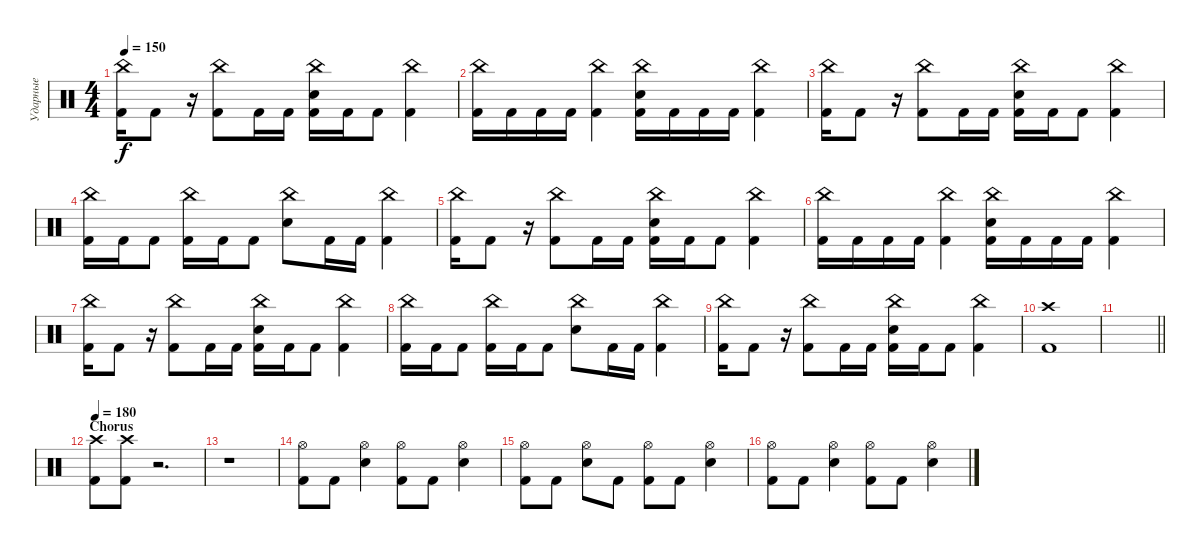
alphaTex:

\track ("Ударные" "Ударные") {instrument percussion}
\staff {score}
\articulation defaults
\ts (4 4)
\tempo 150
\clef neutral
\ks c
("China (hit)" "Kick (hit) 2").16{dy f} "Kick (hit) 2".8 r.16 ("China (hit)" "Kick (hit) 2").8 "Kick (hit) 2".16 "Kick (hit) 2".16 ("China (hit)" "Electric Snare (hit)" "Kick (hit) 2").16 "Kick (hit) 2".16 "Kick (hit) 2".8 ("China (hit)" "Kick (hit) 2").4 |
("China (hit)" "Kick (hit) 2").16 "Kick (hit) 2".16 "Kick (hit) 2".16 "Kick (hit) 2".16 ("China (hit)" "Kick (hit) 2").4 ("China (hit)" "Electric Snare (hit)" "Kick (hit) 2").16 "Kick (hit) 2".16 "Kick (hit) 2".16 "Kick (hit) 2".16 ("China (hit)" "Kick (hit) 2").4 |
("China (hit)" "Kick (hit) 2").16 "Kick (hit) 2".8 r.16 ("China (hit)" "Kick (hit) 2").8 "Kick (hit) 2".16 "Kick (hit) 2".16 ("China (hit)" "Electric Snare (hit)" "Kick (hit) 2").16 "Kick (hit) 2".16 "Kick (hit) 2".8 ("China (hit)" "Kick (hit) 2").4 |
("China (hit)" "Kick (hit) 2").16 "Kick (hit) 2".16 "Kick (hit) 2".8 ("China (hit)" "Kick (hit) 2").16 "Kick (hit) 2".16 "Kick (hit) 2".8 ("China (hit)" "Electric Snare (hit)").8 "Kick (hit) 2".16 "Kick (hit) 2".16 ("China (hit)" "Kick (hit) 2").4 |
("China (hit)" "Kick (hit) 2").16 "Kick (hit) 2".8 r.16 ("China (hit)" "Kick (hit) 2").8 "Kick (hit) 2".16 "Kick (hit) 2".16 ("China (hit)" "Electric Snare (hit)" "Kick (hit) 2").16 "Kick (hit) 2".16 "Kick (hit) 2".8 ("China (hit)" "Kick (hit) 2").4 |
("China (hit)" "Kick (hit) 2").16 "Kick (hit) 2".16 "Kick (hit) 2".16 "Kick (hit) 2".16 ("China (hit)" "Kick (hit) 2").4 ("China (hit)" "Electric Snare (hit)" "Kick (hit) 2").16 "Kick (hit) 2".16 "Kick (hit) 2".16 "Kick (hit) 2".16 ("China (hit)" "Kick (hit) 2").4 |
("China (hit)" "Kick (hit) 2").16 "Kick (hit) 2".8 r.16 ("China (hit)" "Kick (hit) 2").8 "Kick (hit) 2".16 "Kick (hit) 2".16 ("China (hit)" "Electric Snare (hit)" "Kick (hit) 2").16 "Kick (hit) 2".16 "Kick (hit) 2".8 ("China (hit)" "Kick (hit) 2").4 |
("China (hit)" "Kick (hit) 2").16 "Kick (hit) 2".16 "Kick (hit) 2".8 ("China (hit)" "Kick (hit) 2").16 "Kick (hit) 2".16 "Kick (hit) 2".8 ("China (hit)" "Electric Snare (hit)").8 "Kick (hit) 2".16 "Kick (hit) 2".16 ("China (hit)" "Kick (hit) 2").4 |
("China (hit)" "Kick (hit) 2").16 "Kick (hit) 2".8 r.16 ("China (hit)" "Kick (hit) 2").8 "Kick (hit) 2".16 "Kick (hit) 2".16 ("China (hit)" "Electric Snare (hit)" "Kick (hit) 2").16 "Kick (hit) 2".16 "Kick (hit) 2".8 ("China (hit)" "Kick (hit) 2").4 |
("Crash high (hit)" "Kick (hit) 2").1 |
\barLineRight lightlight
|
\section ("" "Chorus")
\tempo 180
("Crash high (hit)" "Kick (hit) 2").8 ("Crash high (hit)" "Kick (hit) 2").8 r.2{d} |
r.1 |
("Hi-Hat (open)" "Kick (hit) 2").8 "Kick (hit) 2".8 ("Hi-Hat (open)" "Electric Snare (hit)").4 ("Hi-Hat (open)" "Kick (hit) 2").8 "Kick (hit) 2".8 ("Hi-Hat (open)" "Electric Snare (hit)").4 |
("Hi-Hat (open)" "Kick (hit) 2").8 "Kick (hit) 2".8 ("Hi-Hat (open)" "Electric Snare (hit)").8 "Kick (hit) 2".8 ("Hi-Hat (open)" "Kick (hit) 2").8 "Kick (hit) 2".8 ("Hi-Hat (open)" "Electric Snare (hit)").4 |
("Hi-Hat (open)" "Kick (hit) 2").8 "Kick (hit) 2".8 ("Hi-Hat (open)" "Electric Snare (hit)").4 ("Hi-Hat (open)" "Kick (hit) 2").8 "Kick (hit) 2".8 ("Hi-Hat (open)" "Electric Snare (hit)").4
